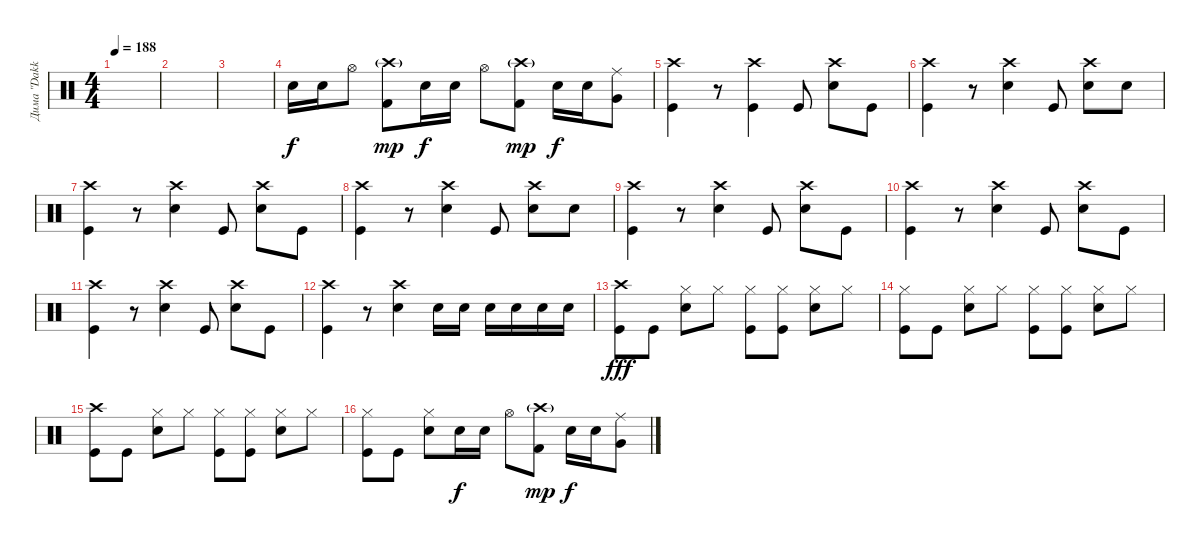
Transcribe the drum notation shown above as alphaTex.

\track ("Дима \"Dakkar\" Кеменов" "Дима \"Dakk") {instrument percussion}
\staff
\articulation defaults
\ts (4 4)
\tempo 188
\clef neutral
\ks c
|
|
|
"Electric Snare (hit)".16 "Electric Snare (hit)".16 "Hi-Hat (open)".8 ("Crash high (hit)"{g} "Kick (hit) 2").8{dy mp} "Electric Snare (hit)".16{dy f} "Electric Snare (hit)".16 "Hi-Hat (open)".8 ("Crash high (hit)"{g} "Kick (hit) 2").8{dy mp} "Electric Snare (hit)".16{dy f} "Electric Snare (hit)".16 ("Ride (middle)" "Very Low Tom (hit)").8 |
("Crash high (hit)" "Kick (hit)").4 r.8 ("Crash high (hit)" "Kick (hit)").4 "Kick (hit)".8 ("Crash high (hit)" "Electric Snare (hit)").8 "Kick (hit)".8 |
("Crash high (hit)" "Kick (hit)").4 r.8 ("Crash high (hit)" "Electric Snare (hit)").4 "Kick (hit)".8 ("Crash high (hit)" "Electric Snare (hit)").8 "Electric Snare (hit)".8 |
("Crash high (hit)" "Kick (hit)").4 r.8 ("Crash high (hit)" "Electric Snare (hit)").4 "Kick (hit)".8 ("Crash high (hit)" "Electric Snare (hit)").8 "Kick (hit)".8 |
("Crash high (hit)" "Kick (hit)").4 r.8 ("Crash high (hit)" "Electric Snare (hit)").4 "Kick (hit)".8 ("Crash high (hit)" "Electric Snare (hit)").8 "Electric Snare (hit)".8 |
("Crash high (hit)" "Kick (hit)").4 r.8 ("Crash high (hit)" "Electric Snare (hit)").4 "Kick (hit)".8 ("Crash high (hit)" "Electric Snare (hit)").8 "Kick (hit)".8 |
("Crash high (hit)" "Kick (hit)").4 r.8 ("Crash high (hit)" "Electric Snare (hit)").4 "Kick (hit)".8 ("Crash high (hit)" "Electric Snare (hit)").8 "Kick (hit)".8 |
("Crash high (hit)" "Kick (hit)").4 r.8 ("Crash high (hit)" "Electric Snare (hit)").4 "Kick (hit)".8 ("Crash high (hit)" "Electric Snare (hit)").8 "Kick (hit)".8 |
("Crash high (hit)" "Kick (hit)").4 r.8 ("Crash high (hit)" "Electric Snare (hit)").4 "Electric Snare (hit)".16 "Electric Snare (hit)".16 "Electric Snare (hit)".16 "Electric Snare (hit)".16 "Electric Snare (hit)".16 "Electric Snare (hit)".16 |
("Crash high (hit)" "Kick (hit)").8{dy fff} "Kick (hit)".8 ("Hi-Hat (closed)" "Snare (hit) 2").8 "Hi-Hat (closed)".8 ("Hi-Hat (closed)" "Kick (hit)").8 ("Hi-Hat (closed)" "Kick (hit)").8 ("Hi-Hat (closed)" "Snare (hit) 2").8 "Hi-Hat (closed)".8 |
("Hi-Hat (closed)" "Kick (hit)").8 "Kick (hit)".8 ("Hi-Hat (closed)" "Snare (hit) 2").8 "Hi-Hat (closed)".8 ("Hi-Hat (closed)" "Kick (hit)").8 ("Hi-Hat (closed)" "Kick (hit)").8 ("Hi-Hat (closed)" "Snare (hit) 2").8 "Hi-Hat (closed)".8 |
("Crash high (hit)" "Kick (hit)").8 "Kick (hit)".8 ("Hi-Hat (closed)" "Snare (hit) 2").8 "Hi-Hat (closed)".8 ("Hi-Hat (closed)" "Kick (hit)").8 ("Hi-Hat (closed)" "Kick (hit)").8 ("Hi-Hat (closed)" "Snare (hit) 2").8 "Hi-Hat (closed)".8 |
("Hi-Hat (closed)" "Kick (hit)").8 "Kick (hit)".8 ("Hi-Hat (closed)" "Snare (hit) 2").8 "Electric Snare (hit)".16{dy f} "Electric Snare (hit)".16 "Hi-Hat (open)".8 ("Crash high (hit)"{g} "Kick (hit) 2").8{dy mp} "Electric Snare (hit)".16{dy f} "Electric Snare (hit)".16 ("Ride (middle)" "Very Low Tom (hit)").8
